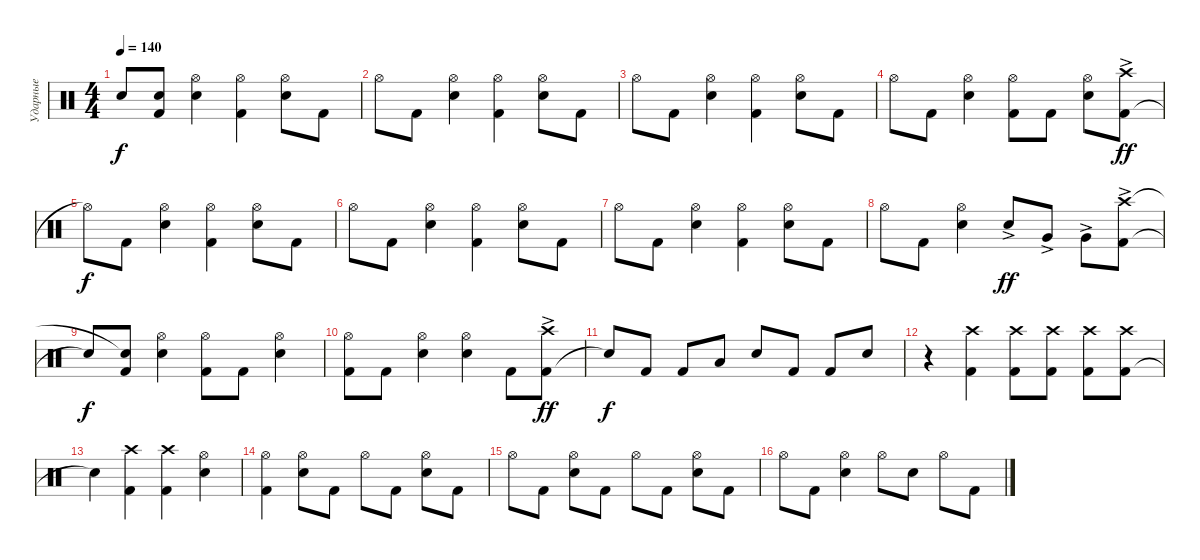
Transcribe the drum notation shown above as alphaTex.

\track ("Ударные" "Ударные") {instrument percussion}
\staff {score}
\articulation defaults
\ts (4 4)
\tempo 140
\clef neutral
\ks c "Snare (hit)"{t}.8{dy f}
("Kick (hit) 2" "Snare (hit)"{t}).8 ("Snare (hit) 2" "Hi-Hat (open)").4 ("Kick (hit) 2" "Hi-Hat (open)").4 ("Snare (hit) 2" "Hi-Hat (open)").8 "Kick (hit) 2".8 |
"Hi-Hat (open)".8 "Kick (hit) 2".8 ("Snare (hit) 2" "Hi-Hat (open)").4 ("Kick (hit) 2" "Hi-Hat (open)").4 ("Snare (hit) 2" "Hi-Hat (open)").8 "Kick (hit) 2".8 |
"Hi-Hat (open)".8 "Kick (hit) 2".8 ("Snare (hit) 2" "Hi-Hat (open)").4 ("Kick (hit) 2" "Hi-Hat (open)").4 ("Snare (hit) 2" "Hi-Hat (open)").8 "Kick (hit) 2".8 |
"Hi-Hat (open)".8 "Kick (hit) 2".8 ("Snare (hit) 2" "Hi-Hat (open)").4 ("Kick (hit) 2" "Hi-Hat (open)").8 "Kick (hit) 2".8 ("Snare (hit) 2" "Hi-Hat (open)").8 ("Kick (hit) 2" "Crash high (hit)"{ac}).8{dy ff} |
"Hi-Hat (open)"{t}.8{dy f} "Kick (hit) 2".8 ("Snare (hit) 2" "Hi-Hat (open)").4 ("Kick (hit) 2" "Hi-Hat (open)").4 ("Snare (hit) 2" "Hi-Hat (open)").8 "Kick (hit) 2".8 |
"Hi-Hat (open)".8 "Kick (hit) 2".8 ("Snare (hit) 2" "Hi-Hat (open)").4 ("Kick (hit) 2" "Hi-Hat (open)").4 ("Snare (hit) 2" "Hi-Hat (open)").8 "Kick (hit) 2".8 |
"Hi-Hat (open)".8 "Kick (hit) 2".8 ("Snare (hit) 2" "Hi-Hat (open)").4 ("Kick (hit) 2" "Hi-Hat (open)").4 ("Snare (hit) 2" "Hi-Hat (open)").8 "Kick (hit) 2".8 |
"Hi-Hat (open)".8 "Kick (hit) 2".8 ("Snare (hit) 2" "Hi-Hat (open)").4 "Snare (hit) 2"{ac}.8{dy ff} "Very Low Tom (hit)"{ac}.8 "Very Low Tom (hit)"{ac}.8 ("Kick (hit) 2"{ac} "Crash high (hit)"{ac}).8 |
"Snare (hit)"{t}.8{dy f} ("Kick (hit) 2" "Snare (hit)"{t}).8 ("Snare (hit) 2" "Hi-Hat (open)").4 ("Kick (hit) 2" "Hi-Hat (open)").8 "Kick (hit) 2".8 ("Snare (hit) 2" "Hi-Hat (open)").4 |
("Kick (hit) 2" "Hi-Hat (open)").8 "Kick (hit) 2".8 ("Snare (hit) 2" "Hi-Hat (open)").4 ("Snare (hit) 2" "Hi-Hat (open)").4 "Kick (hit) 2".8 ("Kick (hit) 2"{ac} "Crash high (hit)"{ac}).8{dy ff} |
"Snare (hit)"{t}.8{dy f} "Kick (hit) 2".8 "Kick (hit) 2".8 "Low Tom (hit)".8 "Snare (hit) 2".8 "Kick (hit) 2".8 "Kick (hit) 2".8 "Snare (hit) 2".8 |
r.4 ("Kick (hit) 2" "Crash high (hit)").4 ("Kick (hit) 2" "Crash high (hit)").8 ("Kick (hit) 2" "Crash high (hit)").8 ("Kick (hit) 2" "Crash high (hit)").8 ("Kick (hit) 2" "Crash high (hit)").8 |
"Snare (hit)"{t}.4 ("Kick (hit) 2" "Crash high (hit)").4 ("Kick (hit) 2" "Crash high (hit)").4 ("Snare (hit) 2" "Hi-Hat (open)").4 |
("Kick (hit) 2" "Hi-Hat (open)").4 ("Snare (hit) 2" "Hi-Hat (open)").8 "Kick (hit) 2".8 "Hi-Hat (open)".8 "Kick (hit) 2".8 ("Snare (hit) 2" "Hi-Hat (open)").8 "Kick (hit) 2".8 |
"Hi-Hat (open)".8 "Kick (hit) 2".8 ("Snare (hit) 2" "Hi-Hat (open)").8 "Kick (hit) 2".8 "Hi-Hat (open)".8 "Kick (hit) 2".8 ("Snare (hit) 2" "Hi-Hat (open)").8 "Kick (hit) 2".8 |
"Hi-Hat (open)".8 "Kick (hit) 2".8 ("Snare (hit) 2" "Hi-Hat (open)").4 "Hi-Hat (open)".8 "Snare (hit) 2".8 "Hi-Hat (open)".8 "Kick (hit) 2".8
